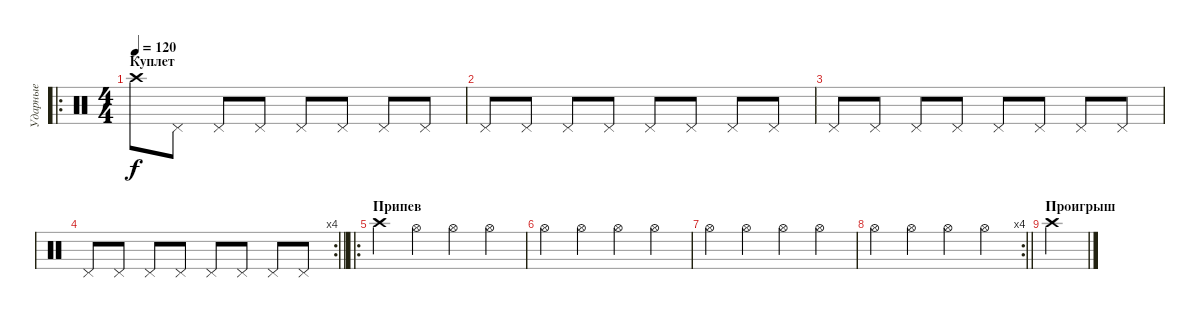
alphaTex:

\track ("Ударные" "Ударные") {instrument percussion}
\staff {score}
\articulation defaults
\ro
\ts (4 4)
\section ("" "Куплет")
\tempo 120
\clef neutral
\ks c "Crash high (hit)".8{dy f} "Pedal Hi-Hat (hit)".8 "Pedal Hi-Hat (hit)".8 "Pedal Hi-Hat (hit)".8 "Pedal Hi-Hat (hit)".8 "Pedal Hi-Hat (hit)".8 "Pedal Hi-Hat (hit)".8 "Pedal Hi-Hat (hit)".8
|
"Pedal Hi-Hat (hit)".8 "Pedal Hi-Hat (hit)".8 "Pedal Hi-Hat (hit)".8 "Pedal Hi-Hat (hit)".8 "Pedal Hi-Hat (hit)".8 "Pedal Hi-Hat (hit)".8 "Pedal Hi-Hat (hit)".8 "Pedal Hi-Hat (hit)".8 |
"Pedal Hi-Hat (hit)".8 "Pedal Hi-Hat (hit)".8 "Pedal Hi-Hat (hit)".8 "Pedal Hi-Hat (hit)".8 "Pedal Hi-Hat (hit)".8 "Pedal Hi-Hat (hit)".8 "Pedal Hi-Hat (hit)".8 "Pedal Hi-Hat (hit)".8 |
\rc 4
\barLineRight lightlight "Pedal Hi-Hat (hit)".8 "Pedal Hi-Hat (hit)".8 "Pedal Hi-Hat (hit)".8 "Pedal Hi-Hat (hit)".8 "Pedal Hi-Hat (hit)".8 "Pedal Hi-Hat (hit)".8 "Pedal Hi-Hat (hit)".8 "Pedal Hi-Hat (hit)".8
|
\ro
\section ("" "Припев")
"Crash high (hit)".4 "Hi-Hat (open)".4 "Hi-Hat (open)".4 "Hi-Hat (open)".4 |
"Hi-Hat (open)".4 "Hi-Hat (open)".4 "Hi-Hat (open)".4 "Hi-Hat (open)".4 |
"Hi-Hat (open)".4 "Hi-Hat (open)".4 "Hi-Hat (open)".4 "Hi-Hat (open)".4 |
\rc 4
\barLineRight lightlight "Hi-Hat (open)".4 "Hi-Hat (open)".4 "Hi-Hat (open)".4 "Hi-Hat (open)".4
|
\section ("" "Проигрыш")
"Crash high (hit)".4
